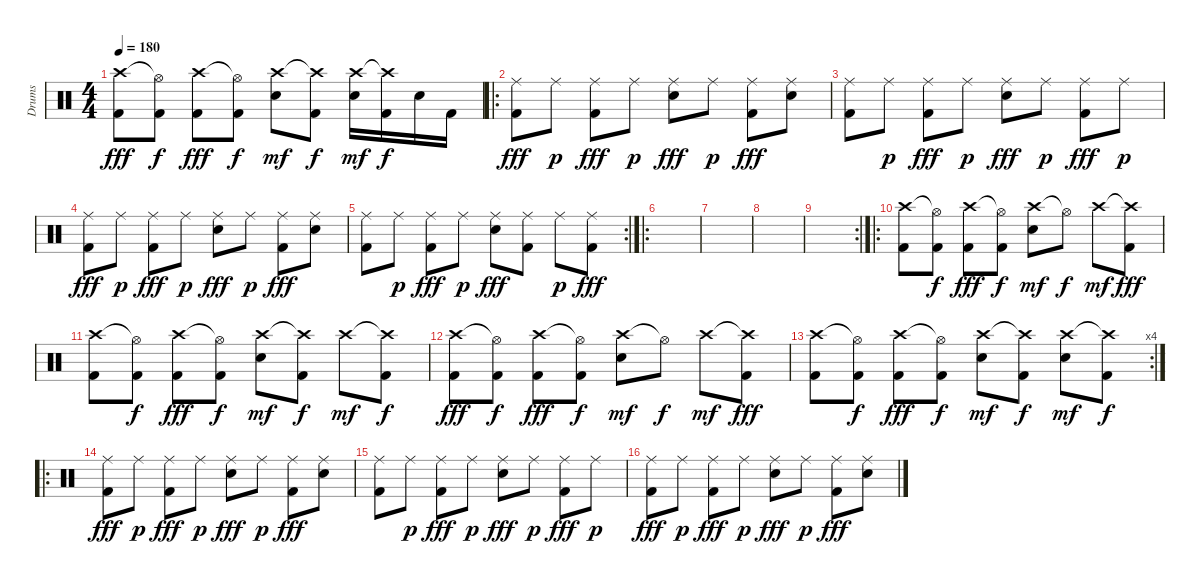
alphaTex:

\track ("Drums" "Drums") {instrument percussion}
\staff {score}
\articulation defaults
\ts (4 4)
\tempo 180
\clef neutral
\ks c
("Crash high (hit)" "Kick (hit) 2").8{dy fff} ("Hi-Hat (open)"{t} "Kick (hit) 2").8{dy f} ("Crash high (hit)" "Kick (hit) 2").8{dy fff} ("Hi-Hat (open)"{t} "Kick (hit) 2").8{dy f} ("Crash high (hit)" "Electric Snare (hit)").8{dy mf} ("Crash high (hit)"{t} "Kick (hit) 2").8{dy f} ("Crash high (hit)" "Electric Snare (hit)").16{dy mf} ("Crash high (hit)"{t} "Kick (hit) 2").16{dy f} "Electric Snare (hit)".16 "Kick (hit) 2".16 |
\ro
("Ride (middle)" "Kick (hit) 2").8{dy fff} "Ride (middle)".8{dy p} ("Ride (middle)" "Kick (hit) 2").8{dy fff} "Ride (middle)".8{dy p} ("Ride (middle)" "Electric Snare (hit)").8{dy fff} "Ride (middle)".8{dy p} ("Ride (middle)" "Kick (hit) 2").8{dy fff} ("Ride (middle)" "Electric Snare (hit)").8 |
("Ride (middle)" "Kick (hit) 2").8 "Ride (middle)".8{dy p} ("Ride (middle)" "Kick (hit) 2").8{dy fff} "Ride (middle)".8{dy p} ("Ride (middle)" "Electric Snare (hit)").8{dy fff} "Ride (middle)".8{dy p} ("Ride (middle)" "Kick (hit) 2").8{dy fff} "Ride (middle)".8{dy p} |
("Ride (middle)" "Kick (hit) 2").8{dy fff} "Ride (middle)".8{dy p} ("Ride (middle)" "Kick (hit) 2").8{dy fff} "Ride (middle)".8{dy p} ("Ride (middle)" "Electric Snare (hit)").8{dy fff} "Ride (middle)".8{dy p} ("Ride (middle)" "Kick (hit) 2").8{dy fff} ("Ride (middle)" "Electric Snare (hit)").8 |
\rc 2
("Ride (middle)" "Kick (hit) 2").8 "Ride (middle)".8{dy p} ("Ride (middle)" "Kick (hit) 2").8{dy fff} "Ride (middle)".8{dy p} ("Ride (middle)" "Electric Snare (hit)").8{dy fff} ("Ride (middle)" "Kick (hit) 2").8 "Ride (middle)".8{dy p} ("Ride (middle)" "Kick (hit) 2").8{dy fff} |
\ro
|
|
|
\rc 2
|
\ro
("Crash high (hit)" "Kick (hit) 2").8 ("Hi-Hat (open)"{t} "Kick (hit) 2").8{dy f} ("Crash high (hit)" "Kick (hit) 2").8{dy fff} ("Hi-Hat (open)"{t} "Kick (hit) 2").8{dy f} ("Crash high (hit)" "Electric Snare (hit)").8{dy mf} "Hi-Hat (open)"{t}.8{dy f} "Crash high (hit)".8{dy mf} ("Crash high (hit)"{t} "Kick (hit) 2").8{dy fff} |
("Crash high (hit)" "Kick (hit) 2").8 ("Hi-Hat (open)"{t} "Kick (hit) 2").8{dy f} ("Crash high (hit)" "Kick (hit) 2").8{dy fff} ("Hi-Hat (open)"{t} "Kick (hit) 2").8{dy f} ("Crash high (hit)" "Electric Snare (hit)").8{dy mf} ("Crash high (hit)"{t} "Kick (hit) 2").8{dy f} "Crash high (hit)".8{dy mf} ("Crash high (hit)"{t} "Kick (hit) 2").8{dy f} |
("Crash high (hit)" "Kick (hit) 2").8{dy fff} ("Hi-Hat (open)"{t} "Kick (hit) 2").8{dy f} ("Crash high (hit)" "Kick (hit) 2").8{dy fff} ("Hi-Hat (open)"{t} "Kick (hit) 2").8{dy f} ("Crash high (hit)" "Electric Snare (hit)").8{dy mf} "Hi-Hat (open)"{t}.8{dy f} "Crash high (hit)".8{dy mf} ("Crash high (hit)"{t} "Kick (hit) 2").8{dy fff} |
\rc 4
("Crash high (hit)" "Kick (hit) 2").8 ("Hi-Hat (open)"{t} "Kick (hit) 2").8{dy f} ("Crash high (hit)" "Kick (hit) 2").8{dy fff} ("Hi-Hat (open)"{t} "Kick (hit) 2").8{dy f} ("Crash high (hit)" "Electric Snare (hit)").8{dy mf} ("Crash high (hit)"{t} "Kick (hit) 2").8{dy f} ("Crash high (hit)" "Electric Snare (hit)").8{dy mf} ("Crash high (hit)"{t} "Kick (hit) 2").8{dy f} |
\ro
("Ride (middle)" "Kick (hit) 2").8{dy fff} "Ride (middle)".8{dy p} ("Ride (middle)" "Kick (hit) 2").8{dy fff} "Ride (middle)".8{dy p} ("Ride (middle)" "Electric Snare (hit)").8{dy fff} "Ride (middle)".8{dy p} ("Ride (middle)" "Kick (hit) 2").8{dy fff} ("Ride (middle)" "Electric Snare (hit)").8 |
("Ride (middle)" "Kick (hit) 2").8 "Ride (middle)".8{dy p} ("Ride (middle)" "Kick (hit) 2").8{dy fff} "Ride (middle)".8{dy p} ("Ride (middle)" "Electric Snare (hit)").8{dy fff} "Ride (middle)".8{dy p} ("Ride (middle)" "Kick (hit) 2").8{dy fff} "Ride (middle)".8{dy p} |
("Ride (middle)" "Kick (hit) 2").8{dy fff} "Ride (middle)".8{dy p} ("Ride (middle)" "Kick (hit) 2").8{dy fff} "Ride (middle)".8{dy p} ("Ride (middle)" "Electric Snare (hit)").8{dy fff} "Ride (middle)".8{dy p} ("Ride (middle)" "Kick (hit) 2").8{dy fff} ("Ride (middle)" "Electric Snare (hit)").8
